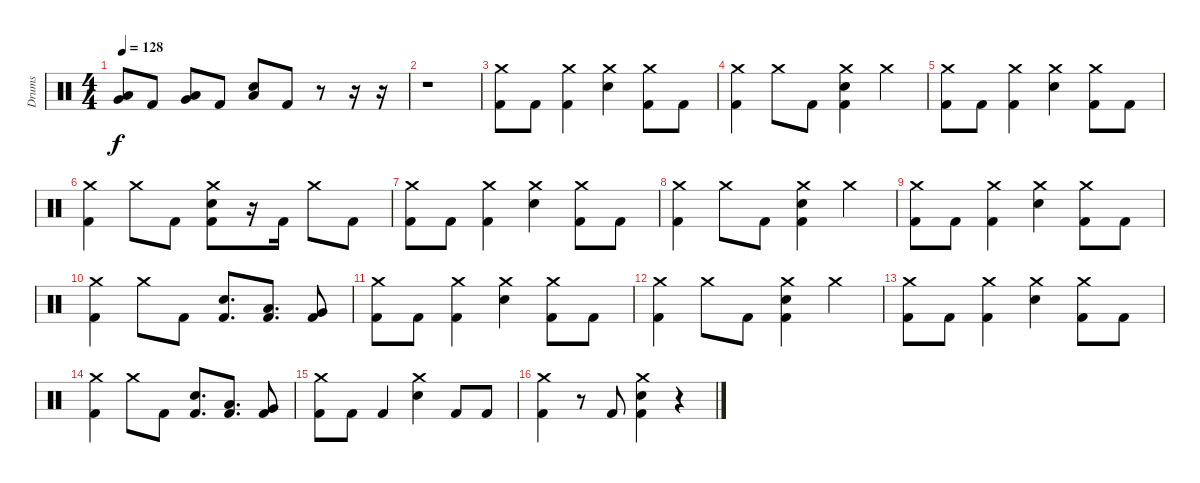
\track ("Drums" "Drums") {instrument percussion}
\staff {score}
\articulation defaults
\ts (4 4)
\tempo 128
\clef neutral
\ks c
("Very Low Tom (hit)" "Low Floor Tom (hit)").8{dy f} "Kick (hit) 2".8 ("Low Tom (hit)" "Very Low Tom (hit)").8 "Kick (hit) 2".8 ("Low Floor Tom (hit)" "Electric Snare (hit)").8 "Kick (hit) 2".8 r.8 r.16 r.16 |
r.1 |
("Crash medium (hit)" "Kick (hit) 2").8 "Kick (hit) 2".8 ("Crash medium (hit)" "Kick (hit) 2").4 ("Crash medium (hit)" "Electric Snare (hit)").4 ("Crash medium (hit)" "Kick (hit) 2").8 "Kick (hit) 2".8 |
("Crash medium (hit)" "Kick (hit) 2").4 "Crash medium (hit)".8 "Kick (hit) 2".8 ("Crash medium (hit)" "Electric Snare (hit)" "Kick (hit) 2").4 "Crash medium (hit)".4 |
("Crash medium (hit)" "Kick (hit) 2").8 "Kick (hit) 2".8 ("Crash medium (hit)" "Kick (hit) 2").4 ("Crash medium (hit)" "Electric Snare (hit)").4 ("Crash medium (hit)" "Kick (hit) 2").8 "Kick (hit) 2".8 |
("Crash medium (hit)" "Kick (hit) 2").4 "Crash medium (hit)".8 "Kick (hit) 2".8 ("Crash medium (hit)" "Electric Snare (hit)" "Kick (hit) 2").8 r.16 "Kick (hit) 2".16 "Crash medium (hit)".8 "Kick (hit) 2".8 |
("Crash medium (hit)" "Kick (hit) 2").8 "Kick (hit) 2".8 ("Crash medium (hit)" "Kick (hit) 2").4 ("Crash medium (hit)" "Electric Snare (hit)").4 ("Crash medium (hit)" "Kick (hit) 2").8 "Kick (hit) 2".8 |
("Crash medium (hit)" "Kick (hit) 2").4 "Crash medium (hit)".8 "Kick (hit) 2".8 ("Crash medium (hit)" "Electric Snare (hit)" "Kick (hit) 2").4 "Crash medium (hit)".4 |
("Crash medium (hit)" "Kick (hit) 2").8 "Kick (hit) 2".8 ("Crash medium (hit)" "Kick (hit) 2").4 ("Crash medium (hit)" "Electric Snare (hit)").4 ("Crash medium (hit)" "Kick (hit) 2").8 "Kick (hit) 2".8 |
("Crash medium (hit)" "Kick (hit) 2").4 "Crash medium (hit)".8 "Kick (hit) 2".8 ("Electric Snare (hit)" "Kick (hit) 2").8{d} ("Low Tom (hit)" "Kick (hit) 2").8{d} ("Very Low Tom (hit)" "Kick (hit) 2").8 |
("Crash medium (hit)" "Kick (hit) 2").8 "Kick (hit) 2".8 ("Crash medium (hit)" "Kick (hit) 2").4 ("Crash medium (hit)" "Electric Snare (hit)").4 ("Crash medium (hit)" "Kick (hit) 2").8 "Kick (hit) 2".8 |
("Crash medium (hit)" "Kick (hit) 2").4 "Crash medium (hit)".8 "Kick (hit) 2".8 ("Crash medium (hit)" "Electric Snare (hit)" "Kick (hit) 2").4 "Crash medium (hit)".4 |
("Crash medium (hit)" "Kick (hit) 2").8 "Kick (hit) 2".8 ("Crash medium (hit)" "Kick (hit) 2").4 ("Crash medium (hit)" "Electric Snare (hit)").4 ("Crash medium (hit)" "Kick (hit) 2").8 "Kick (hit) 2".8 |
("Crash medium (hit)" "Kick (hit) 2").4 "Crash medium (hit)".8 "Kick (hit) 2".8 ("Electric Snare (hit)" "Kick (hit) 2").8{d} ("Low Tom (hit)" "Kick (hit) 2").8{d} ("Very Low Tom (hit)" "Kick (hit) 2").8 |
("Crash medium (hit)" "Kick (hit) 2").8 "Kick (hit) 2".8 "Kick (hit) 2".4 ("Crash medium (hit)" "Electric Snare (hit)").4 "Kick (hit) 2".8 "Kick (hit) 2".8 |
("Crash medium (hit)" "Kick (hit) 2").4 r.8 "Kick (hit) 2".8 ("Crash medium (hit)" "Electric Snare (hit)" "Kick (hit) 2").4 r.4
